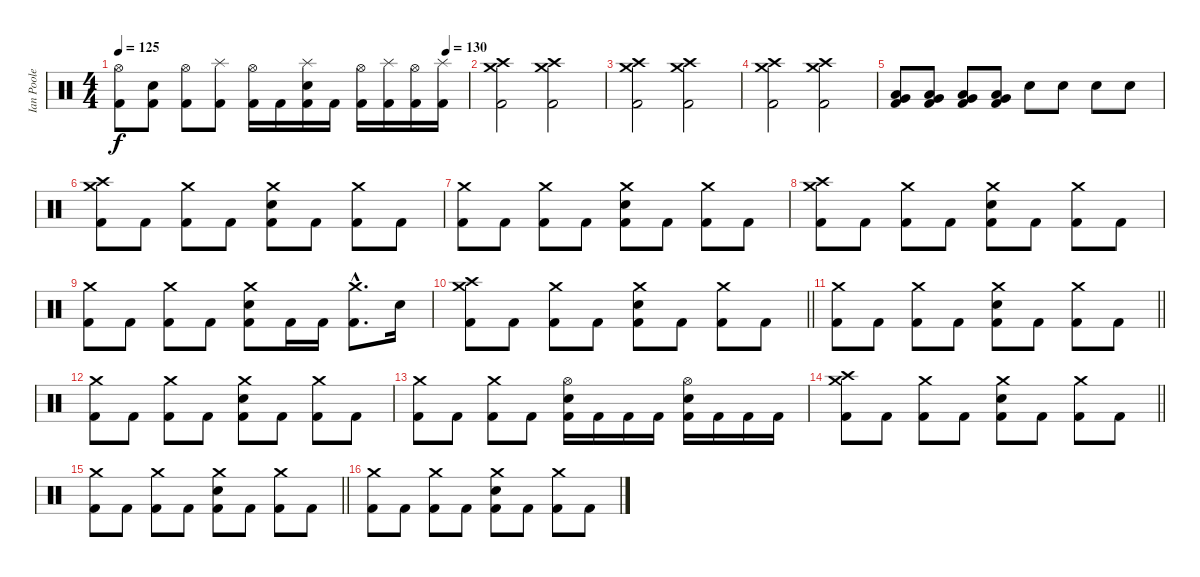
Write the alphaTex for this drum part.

\track ("Ian Poole" "Ian Poole") {instrument percussion}
\staff {score}
\articulation defaults
\ts (4 4)
\tempo 125
\tempo (130 0.9375)
\clef neutral
\ks c
("Hi-Hat (open)" "Kick (hit) 2").8{dy f} ("Electric Snare (hit)" "Kick (hit) 2").8 ("Hi-Hat (open)" "Kick (hit) 2").8 ("Splash (hit)" "Kick (hit) 2").8 ("Hi-Hat (open)" "Kick (hit) 2").16 "Kick (hit) 2".16 ("Splash (hit)" "Electric Snare (hit)" "Kick (hit) 2").16 "Kick (hit) 2".16 ("Hi-Hat (open)" "Kick (hit) 2").16 ("Splash (hit)" "Kick (hit) 2").16 ("Hi-Hat (open)" "Kick (hit) 2").16 ("Splash (hit)" "Kick (hit) 2").16 |
("Crash medium (hit)" "Crash high (hit)" "Kick (hit) 2").2 ("Crash medium (hit)" "Crash high (hit)" "Kick (hit) 2").2 |
("Crash medium (hit)" "Crash high (hit)" "Kick (hit) 2").2 ("Crash medium (hit)" "Crash high (hit)" "Kick (hit) 2").2 |
("Crash medium (hit)" "Crash high (hit)" "Kick (hit) 2").2 ("Crash medium (hit)" "Crash high (hit)" "Kick (hit) 2").2 |
("Very Low Tom (hit)" "Low Floor Tom (hit)" "Kick (hit) 2").8 ("Very Low Tom (hit)" "Low Floor Tom (hit)" "Kick (hit) 2").8 ("Very Low Tom (hit)" "Low Floor Tom (hit)" "Kick (hit) 2").8 ("Very Low Tom (hit)" "Low Floor Tom (hit)" "Kick (hit) 2").8 "Electric Snare (hit)".8 "Electric Snare (hit)".8 "Electric Snare (hit)".8 "Electric Snare (hit)".8 |
("Crash medium (hit)" "Crash high (hit)" "Kick (hit) 2").8 "Kick (hit) 2".8 ("Crash medium (hit)" "Kick (hit) 2").8 "Kick (hit) 2".8 ("Crash medium (hit)" "Electric Snare (hit)" "Kick (hit) 2").8 "Kick (hit) 2".8 ("Crash medium (hit)" "Kick (hit) 2").8 "Kick (hit) 2".8 |
("Crash medium (hit)" "Kick (hit) 2").8 "Kick (hit) 2".8 ("Crash medium (hit)" "Kick (hit) 2").8 "Kick (hit) 2".8 ("Crash medium (hit)" "Electric Snare (hit)" "Kick (hit) 2").8 "Kick (hit) 2".8 ("Crash medium (hit)" "Kick (hit) 2").8 "Kick (hit) 2".8 |
("Crash medium (hit)" "Crash high (hit)" "Kick (hit) 2").8 "Kick (hit) 2".8 ("Crash medium (hit)" "Kick (hit) 2").8 "Kick (hit) 2".8 ("Crash medium (hit)" "Electric Snare (hit)" "Kick (hit) 2").8 "Kick (hit) 2".8 ("Crash medium (hit)" "Kick (hit) 2").8 "Kick (hit) 2".8 |
("Crash medium (hit)" "Kick (hit) 2").8 "Kick (hit) 2".8 ("Crash medium (hit)" "Kick (hit) 2").8 "Kick (hit) 2".8 ("Crash medium (hit)" "Electric Snare (hit)" "Kick (hit) 2").8 "Kick (hit) 2".16 "Kick (hit) 2".16 ("Crash medium (hit)"{hac} "Kick (hit) 2"{hac}).8{d} "Electric Snare (hit)".16 |
\barLineRight lightlight
("Crash medium (hit)" "Crash high (hit)" "Kick (hit) 2").8 "Kick (hit) 2".8 ("Crash medium (hit)" "Kick (hit) 2").8 "Kick (hit) 2".8 ("Crash medium (hit)" "Electric Snare (hit)" "Kick (hit) 2").8 "Kick (hit) 2".8 ("Crash medium (hit)" "Kick (hit) 2").8 "Kick (hit) 2".8 |
\barLineRight lightlight
("Crash medium (hit)" "Kick (hit) 2").8 "Kick (hit) 2".8 ("Crash medium (hit)" "Kick (hit) 2").8 "Kick (hit) 2".8 ("Crash medium (hit)" "Electric Snare (hit)" "Kick (hit) 2").8 "Kick (hit) 2".8 ("Crash medium (hit)" "Kick (hit) 2").8 "Kick (hit) 2".8 |
("Crash medium (hit)" "Kick (hit) 2").8 "Kick (hit) 2".8 ("Crash medium (hit)" "Kick (hit) 2").8 "Kick (hit) 2".8 ("Crash medium (hit)" "Electric Snare (hit)" "Kick (hit) 2").8 "Kick (hit) 2".8 ("Crash medium (hit)" "Kick (hit) 2").8 "Kick (hit) 2".8 |
("Crash medium (hit)" "Kick (hit) 2").8 "Kick (hit) 2".8 ("Crash medium (hit)" "Kick (hit) 2").8 "Kick (hit) 2".8 ("Hi-Hat (open)" "Electric Snare (hit)" "Kick (hit) 2").16 "Kick (hit) 2".16 "Kick (hit) 2".16 "Kick (hit) 2".16 ("Hi-Hat (open)" "Electric Snare (hit)" "Kick (hit) 2").16 "Kick (hit) 2".16 "Kick (hit) 2".16 "Kick (hit) 2".16 |
\barLineRight lightlight
("Crash medium (hit)" "Crash high (hit)" "Kick (hit) 2").8 "Kick (hit) 2".8 ("Crash medium (hit)" "Kick (hit) 2").8 "Kick (hit) 2".8 ("Crash medium (hit)" "Electric Snare (hit)" "Kick (hit) 2").8 "Kick (hit) 2".8 ("Crash medium (hit)" "Kick (hit) 2").8 "Kick (hit) 2".8 |
\barLineRight lightlight
("Crash medium (hit)" "Kick (hit) 2").8 "Kick (hit) 2".8 ("Crash medium (hit)" "Kick (hit) 2").8 "Kick (hit) 2".8 ("Crash medium (hit)" "Electric Snare (hit)" "Kick (hit) 2").8 "Kick (hit) 2".8 ("Crash medium (hit)" "Kick (hit) 2").8 "Kick (hit) 2".8 |
("Crash medium (hit)" "Kick (hit) 2").8 "Kick (hit) 2".8 ("Crash medium (hit)" "Kick (hit) 2").8 "Kick (hit) 2".8 ("Crash medium (hit)" "Electric Snare (hit)" "Kick (hit) 2").8 "Kick (hit) 2".8 ("Crash medium (hit)" "Kick (hit) 2").8 "Kick (hit) 2".8
